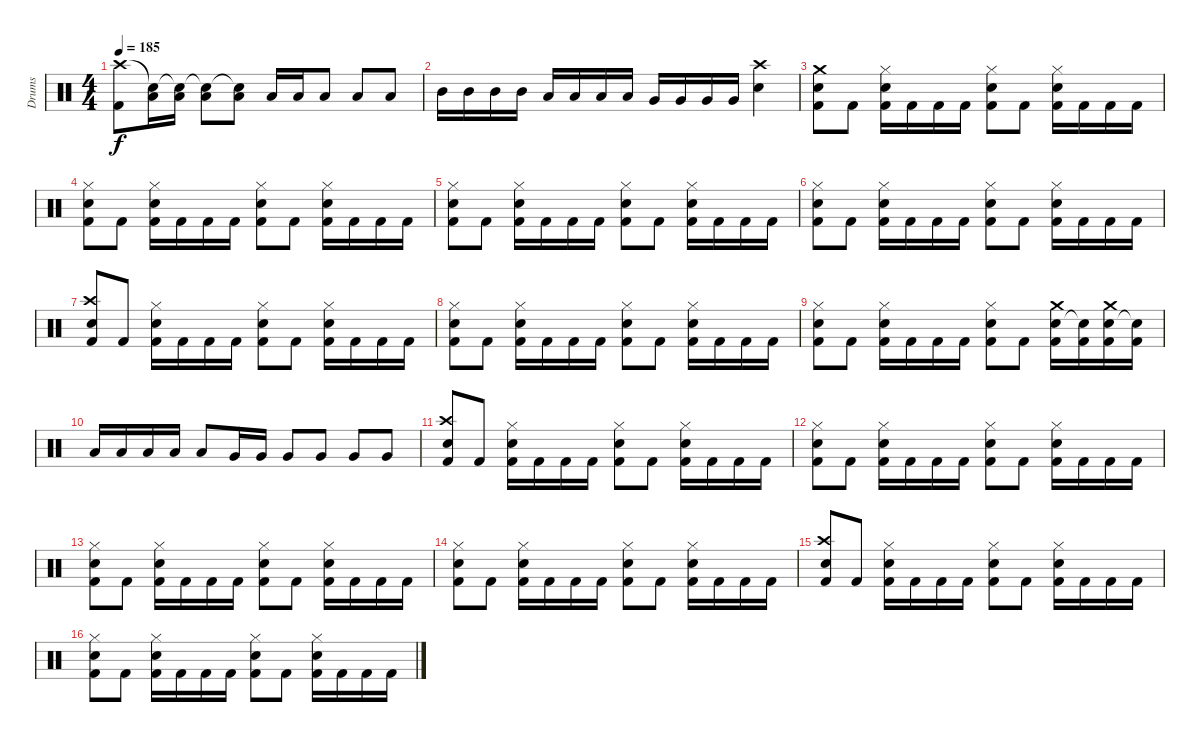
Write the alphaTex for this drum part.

\track ("Drums" "Drums") {instrument percussion}
\staff {score}
\articulation defaults
\ts (4 4)
\tempo 185
\clef neutral
\ks c
("Kick (hit) 2" "Crash high (hit)").8{dy f} ("Low Tom (hit)" "Snare (hit)"{t}).16 ("Low Tom (hit)" "Snare (hit)"{t}).16 ("Low Tom (hit)" "Snare (hit)"{t}).8 ("Low Tom (hit)" "Snare (hit)"{t}).8 "Low Tom (hit)".16 "Low Tom (hit)".16 "Low Tom (hit)".8 "Low Tom (hit)".8 "Low Tom (hit)".8 |
"Mid Tom (hit)".16 "Mid Tom (hit)".16 "Mid Tom (hit)".16 "Mid Tom (hit)".16 "Low Tom (hit)".16 "Low Tom (hit)".16 "Low Tom (hit)".16 "Low Tom (hit)".16 "Very Low Tom (hit)".16 "Very Low Tom (hit)".16 "Very Low Tom (hit)".16 "Very Low Tom (hit)".16 ("Snare (hit) 2" "Crash high (hit)").4 |
("Kick (hit) 2" "Snare (hit) 2" "Crash medium (hit)").8 "Kick (hit) 2".8 ("Kick (hit) 2" "Snare (hit) 2" "Hi-Hat (closed)").16 "Kick (hit) 2".16 "Kick (hit) 2".16 "Kick (hit) 2".16 ("Kick (hit) 2" "Snare (hit) 2" "Hi-Hat (closed)").8 "Kick (hit) 2".8 ("Kick (hit) 2" "Snare (hit) 2" "Hi-Hat (closed)").16 "Kick (hit) 2".16 "Kick (hit) 2".16 "Kick (hit) 2".16 |
("Kick (hit) 2" "Snare (hit) 2" "Hi-Hat (closed)").8 "Kick (hit) 2".8 ("Kick (hit) 2" "Snare (hit) 2" "Hi-Hat (closed)").16 "Kick (hit) 2".16 "Kick (hit) 2".16 "Kick (hit) 2".16 ("Kick (hit) 2" "Snare (hit) 2" "Hi-Hat (closed)").8 "Kick (hit) 2".8 ("Kick (hit) 2" "Snare (hit) 2" "Hi-Hat (closed)").16 "Kick (hit) 2".16 "Kick (hit) 2".16 "Kick (hit) 2".16 |
("Kick (hit) 2" "Snare (hit) 2" "Hi-Hat (closed)").8 "Kick (hit) 2".8 ("Kick (hit) 2" "Snare (hit) 2" "Hi-Hat (closed)").16 "Kick (hit) 2".16 "Kick (hit) 2".16 "Kick (hit) 2".16 ("Kick (hit) 2" "Snare (hit) 2" "Hi-Hat (closed)").8 "Kick (hit) 2".8 ("Kick (hit) 2" "Snare (hit) 2" "Hi-Hat (closed)").16 "Kick (hit) 2".16 "Kick (hit) 2".16 "Kick (hit) 2".16 |
("Kick (hit) 2" "Snare (hit) 2" "Hi-Hat (closed)").8 "Kick (hit) 2".8 ("Kick (hit) 2" "Snare (hit) 2" "Hi-Hat (closed)").16 "Kick (hit) 2".16 "Kick (hit) 2".16 "Kick (hit) 2".16 ("Kick (hit) 2" "Snare (hit) 2" "Hi-Hat (closed)").8 "Kick (hit) 2".8 ("Kick (hit) 2" "Snare (hit) 2" "Hi-Hat (closed)").16 "Kick (hit) 2".16 "Kick (hit) 2".16 "Kick (hit) 2".16 |
("Kick (hit) 2" "Snare (hit) 2" "Crash high (hit)").8 "Kick (hit) 2".8 ("Kick (hit) 2" "Snare (hit) 2" "Hi-Hat (closed)").16 "Kick (hit) 2".16 "Kick (hit) 2".16 "Kick (hit) 2".16 ("Kick (hit) 2" "Snare (hit) 2" "Hi-Hat (closed)").8 "Kick (hit) 2".8 ("Kick (hit) 2" "Snare (hit) 2" "Hi-Hat (closed)").16 "Kick (hit) 2".16 "Kick (hit) 2".16 "Kick (hit) 2".16 |
("Kick (hit) 2" "Snare (hit) 2" "Hi-Hat (closed)").8 "Kick (hit) 2".8 ("Kick (hit) 2" "Snare (hit) 2" "Hi-Hat (closed)").16 "Kick (hit) 2".16 "Kick (hit) 2".16 "Kick (hit) 2".16 ("Kick (hit) 2" "Snare (hit) 2" "Hi-Hat (closed)").8 "Kick (hit) 2".8 ("Kick (hit) 2" "Snare (hit) 2" "Hi-Hat (closed)").16 "Kick (hit) 2".16 "Kick (hit) 2".16 "Kick (hit) 2".16 |
("Kick (hit) 2" "Snare (hit) 2" "Hi-Hat (closed)").8 "Kick (hit) 2".8 ("Kick (hit) 2" "Snare (hit) 2" "Hi-Hat (closed)").16 "Kick (hit) 2".16 "Kick (hit) 2".16 "Kick (hit) 2".16 ("Kick (hit) 2" "Snare (hit) 2" "Hi-Hat (closed)").8 "Kick (hit) 2".8 ("Kick (hit) 2" "Snare (hit) 2" "Crash medium (hit)").16 ("Kick (hit) 2" "Snare (hit)"{t}).16 ("Kick (hit) 2" "Snare (hit) 2" "Crash medium (hit)").16 ("Kick (hit) 2" "Snare (hit)"{t}).16 |
"Low Tom (hit)".16 "Low Tom (hit)".16 "Low Tom (hit)".16 "Low Tom (hit)".16 "Low Tom (hit)".8 "Very Low Tom (hit)".16 "Very Low Tom (hit)".16 "Very Low Tom (hit)".8 "Very Low Tom (hit)".8 "Very Low Tom (hit)".8 "Very Low Tom (hit)".8 |
("Kick (hit) 2" "Snare (hit) 2" "Crash high (hit)").8 "Kick (hit) 2".8 ("Kick (hit) 2" "Snare (hit) 2" "Hi-Hat (closed)").16 "Kick (hit) 2".16 "Kick (hit) 2".16 "Kick (hit) 2".16 ("Kick (hit) 2" "Snare (hit) 2" "Hi-Hat (closed)").8 "Kick (hit) 2".8 ("Kick (hit) 2" "Snare (hit) 2" "Hi-Hat (closed)").16 "Kick (hit) 2".16 "Kick (hit) 2".16 "Kick (hit) 2".16 |
("Kick (hit) 2" "Snare (hit) 2" "Hi-Hat (closed)").8 "Kick (hit) 2".8 ("Kick (hit) 2" "Snare (hit) 2" "Hi-Hat (closed)").16 "Kick (hit) 2".16 "Kick (hit) 2".16 "Kick (hit) 2".16 ("Kick (hit) 2" "Snare (hit) 2" "Hi-Hat (closed)").8 "Kick (hit) 2".8 ("Kick (hit) 2" "Snare (hit) 2" "Hi-Hat (closed)").16 "Kick (hit) 2".16 "Kick (hit) 2".16 "Kick (hit) 2".16 |
("Kick (hit) 2" "Snare (hit) 2" "Hi-Hat (closed)").8 "Kick (hit) 2".8 ("Kick (hit) 2" "Snare (hit) 2" "Hi-Hat (closed)").16 "Kick (hit) 2".16 "Kick (hit) 2".16 "Kick (hit) 2".16 ("Kick (hit) 2" "Snare (hit) 2" "Hi-Hat (closed)").8 "Kick (hit) 2".8 ("Kick (hit) 2" "Snare (hit) 2" "Hi-Hat (closed)").16 "Kick (hit) 2".16 "Kick (hit) 2".16 "Kick (hit) 2".16 |
("Kick (hit) 2" "Snare (hit) 2" "Hi-Hat (closed)").8 "Kick (hit) 2".8 ("Kick (hit) 2" "Snare (hit) 2" "Hi-Hat (closed)").16 "Kick (hit) 2".16 "Kick (hit) 2".16 "Kick (hit) 2".16 ("Kick (hit) 2" "Snare (hit) 2" "Hi-Hat (closed)").8 "Kick (hit) 2".8 ("Kick (hit) 2" "Snare (hit) 2" "Hi-Hat (closed)").16 "Kick (hit) 2".16 "Kick (hit) 2".16 "Kick (hit) 2".16 |
("Kick (hit) 2" "Snare (hit) 2" "Crash high (hit)").8 "Kick (hit) 2".8 ("Kick (hit) 2" "Snare (hit) 2" "Hi-Hat (closed)").16 "Kick (hit) 2".16 "Kick (hit) 2".16 "Kick (hit) 2".16 ("Kick (hit) 2" "Snare (hit) 2" "Hi-Hat (closed)").8 "Kick (hit) 2".8 ("Kick (hit) 2" "Snare (hit) 2" "Hi-Hat (closed)").16 "Kick (hit) 2".16 "Kick (hit) 2".16 "Kick (hit) 2".16 |
("Kick (hit) 2" "Snare (hit) 2" "Hi-Hat (closed)").8 "Kick (hit) 2".8 ("Kick (hit) 2" "Snare (hit) 2" "Hi-Hat (closed)").16 "Kick (hit) 2".16 "Kick (hit) 2".16 "Kick (hit) 2".16 ("Kick (hit) 2" "Snare (hit) 2" "Hi-Hat (closed)").8 "Kick (hit) 2".8 ("Kick (hit) 2" "Snare (hit) 2" "Hi-Hat (closed)").16 "Kick (hit) 2".16 "Kick (hit) 2".16 "Kick (hit) 2".16
